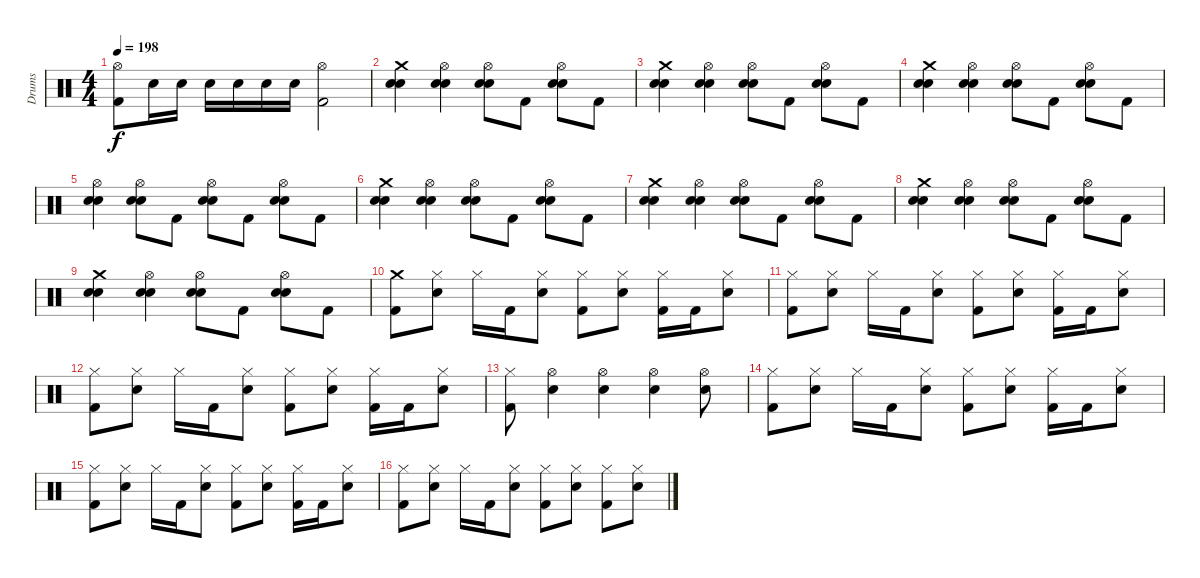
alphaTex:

\track ("Drums" "Drums") {instrument percussion}
\staff {score}
\articulation defaults
\ts (4 4)
\tempo 198
\clef neutral
\ks c
("Hi-Hat (open)" "Kick (hit) 2").8{dy f} "Electric Snare (hit)".16 "Electric Snare (hit)".16 "Electric Snare (hit)".16 "Electric Snare (hit)".16 "Electric Snare (hit)".16 "Electric Snare (hit)".16 ("Hi-Hat (open)" "Kick (hit) 2").2 |
("Crash medium (hit)" "Electric Snare (hit)" "Snare (hit) 2").4 ("Hi-Hat (open)" "Electric Snare (hit)" "Snare (hit) 2").4 ("Hi-Hat (open)" "Electric Snare (hit)" "Snare (hit) 2").8 "Kick (hit) 2".8 ("Hi-Hat (open)" "Electric Snare (hit)" "Snare (hit) 2").8 "Kick (hit) 2".8 |
("Crash medium (hit)" "Electric Snare (hit)" "Snare (hit) 2").4 ("Hi-Hat (open)" "Electric Snare (hit)" "Snare (hit) 2").4 ("Hi-Hat (open)" "Electric Snare (hit)" "Snare (hit) 2").8 "Kick (hit) 2".8 ("Hi-Hat (open)" "Electric Snare (hit)" "Snare (hit) 2").8 "Kick (hit) 2".8 |
("Crash medium (hit)" "Electric Snare (hit)" "Snare (hit) 2").4 ("Hi-Hat (open)" "Electric Snare (hit)" "Snare (hit) 2").4 ("Hi-Hat (open)" "Electric Snare (hit)" "Snare (hit) 2").8 "Kick (hit) 2".8 ("Hi-Hat (open)" "Electric Snare (hit)" "Snare (hit) 2").8 "Kick (hit) 2".8 |
("Hi-Hat (open)" "Electric Snare (hit)" "Snare (hit) 2").4 ("Hi-Hat (open)" "Electric Snare (hit)" "Snare (hit) 2").8 "Kick (hit) 2".8 ("Hi-Hat (open)" "Electric Snare (hit)" "Snare (hit) 2").8 "Kick (hit) 2".8 ("Hi-Hat (open)" "Electric Snare (hit)" "Snare (hit) 2").8 "Kick (hit) 2".8 |
("Crash medium (hit)" "Electric Snare (hit)" "Snare (hit) 2").4 ("Hi-Hat (open)" "Electric Snare (hit)" "Snare (hit) 2").4 ("Hi-Hat (open)" "Electric Snare (hit)" "Snare (hit) 2").8 "Kick (hit) 2".8 ("Hi-Hat (open)" "Electric Snare (hit)" "Snare (hit) 2").8 "Kick (hit) 2".8 |
("Crash medium (hit)" "Electric Snare (hit)" "Snare (hit) 2").4 ("Hi-Hat (open)" "Electric Snare (hit)" "Snare (hit) 2").4 ("Hi-Hat (open)" "Electric Snare (hit)" "Snare (hit) 2").8 "Kick (hit) 2".8 ("Hi-Hat (open)" "Electric Snare (hit)" "Snare (hit) 2").8 "Kick (hit) 2".8 |
("Crash medium (hit)" "Electric Snare (hit)" "Snare (hit) 2").4 ("Hi-Hat (open)" "Electric Snare (hit)" "Snare (hit) 2").4 ("Hi-Hat (open)" "Electric Snare (hit)" "Snare (hit) 2").8 "Kick (hit) 2".8 ("Hi-Hat (open)" "Electric Snare (hit)" "Snare (hit) 2").8 "Kick (hit) 2".8 |
("Crash medium (hit)" "Electric Snare (hit)" "Snare (hit) 2").4 ("Hi-Hat (open)" "Electric Snare (hit)" "Snare (hit) 2").4 ("Hi-Hat (open)" "Electric Snare (hit)" "Snare (hit) 2").8 "Kick (hit) 2".8 ("Hi-Hat (open)" "Electric Snare (hit)" "Snare (hit) 2").8 "Kick (hit) 2".8 |
("Crash medium (hit)" "Kick (hit) 2").8 ("Hi-Hat (closed)" "Electric Snare (hit)").8 "Hi-Hat (closed)".16 "Kick (hit) 2".16 ("Hi-Hat (closed)" "Electric Snare (hit)").8 ("Hi-Hat (closed)" "Kick (hit) 2").8 ("Hi-Hat (closed)" "Electric Snare (hit)").8 ("Hi-Hat (closed)" "Kick (hit) 2").16 "Kick (hit) 2".16 ("Hi-Hat (closed)" "Electric Snare (hit)").8 |
("Hi-Hat (closed)" "Kick (hit) 2").8 ("Hi-Hat (closed)" "Electric Snare (hit)").8 "Hi-Hat (closed)".16 "Kick (hit) 2".16 ("Hi-Hat (closed)" "Electric Snare (hit)").8 ("Hi-Hat (closed)" "Kick (hit) 2").8 ("Hi-Hat (closed)" "Electric Snare (hit)").8 ("Hi-Hat (closed)" "Kick (hit) 2").16 "Kick (hit) 2".16 ("Hi-Hat (closed)" "Electric Snare (hit)").8 |
("Hi-Hat (closed)" "Kick (hit) 2").8 ("Hi-Hat (closed)" "Electric Snare (hit)").8 "Hi-Hat (closed)".16 "Kick (hit) 2".16 ("Hi-Hat (closed)" "Electric Snare (hit)").8 ("Hi-Hat (closed)" "Kick (hit) 2").8 ("Hi-Hat (closed)" "Electric Snare (hit)").8 ("Hi-Hat (closed)" "Kick (hit) 2").16 "Kick (hit) 2".16 ("Hi-Hat (closed)" "Electric Snare (hit)").8 |
("Hi-Hat (closed)" "Kick (hit) 2").8 ("Hi-Hat (open)" "Electric Snare (hit)").4 ("Hi-Hat (open)" "Electric Snare (hit)").4 ("Hi-Hat (open)" "Electric Snare (hit)").4 ("Hi-Hat (open)" "Electric Snare (hit)").8 |
("Hi-Hat (closed)" "Kick (hit) 2").8 ("Hi-Hat (closed)" "Electric Snare (hit)").8 "Hi-Hat (closed)".16 "Kick (hit) 2".16 ("Hi-Hat (closed)" "Electric Snare (hit)").8 ("Hi-Hat (closed)" "Kick (hit) 2").8 ("Hi-Hat (closed)" "Electric Snare (hit)").8 ("Hi-Hat (closed)" "Kick (hit) 2").16 "Kick (hit) 2".16 ("Hi-Hat (closed)" "Electric Snare (hit)").8 |
("Hi-Hat (closed)" "Kick (hit) 2").8 ("Hi-Hat (closed)" "Electric Snare (hit)").8 "Hi-Hat (closed)".16 "Kick (hit) 2".16 ("Hi-Hat (closed)" "Electric Snare (hit)").8 ("Hi-Hat (closed)" "Kick (hit) 2").8 ("Hi-Hat (closed)" "Electric Snare (hit)").8 ("Hi-Hat (closed)" "Kick (hit) 2").16 "Kick (hit) 2".16 ("Hi-Hat (closed)" "Electric Snare (hit)").8 |
("Hi-Hat (closed)" "Kick (hit) 2").8 ("Hi-Hat (closed)" "Electric Snare (hit)").8 "Hi-Hat (closed)".16 "Kick (hit) 2".16 ("Hi-Hat (closed)" "Electric Snare (hit)").8 ("Hi-Hat (closed)" "Kick (hit) 2").8 ("Hi-Hat (closed)" "Electric Snare (hit)").8 ("Hi-Hat (closed)" "Kick (hit) 2").8 ("Hi-Hat (closed)" "Electric Snare (hit)").8
